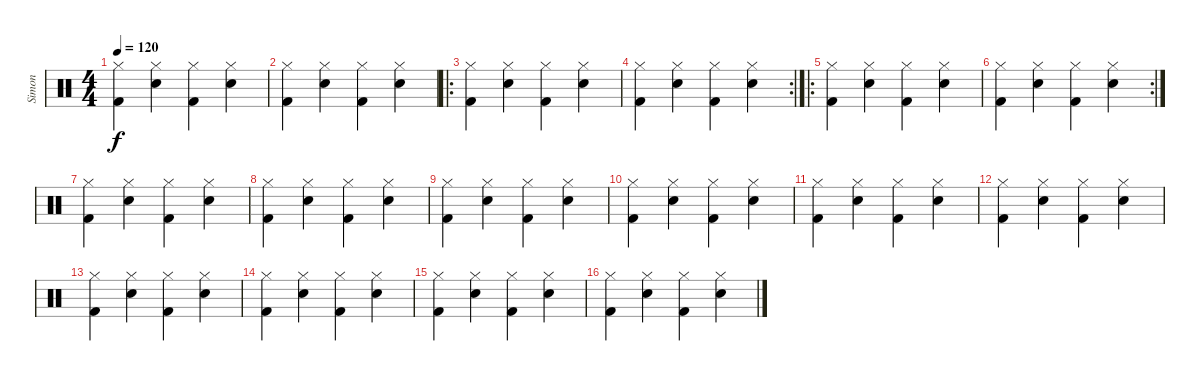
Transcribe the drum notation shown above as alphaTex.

\track ("Simon" "Simon") {instrument percussion}
\staff {score}
\articulation defaults
\ts (4 4)
\tempo 120
\clef neutral
\ks c
("Hi-Hat (closed)" "Kick (hit) 2").4{dy f} ("Hi-Hat (closed)" "Electric Snare (hit)").4 ("Hi-Hat (closed)" "Kick (hit) 2").4 ("Hi-Hat (closed)" "Electric Snare (hit)").4 |
("Hi-Hat (closed)" "Kick (hit) 2").4 ("Hi-Hat (closed)" "Electric Snare (hit)").4 ("Hi-Hat (closed)" "Kick (hit) 2").4 ("Hi-Hat (closed)" "Electric Snare (hit)").4 |
\ro
("Hi-Hat (closed)" "Kick (hit) 2").4 ("Hi-Hat (closed)" "Electric Snare (hit)").4 ("Hi-Hat (closed)" "Kick (hit) 2").4 ("Hi-Hat (closed)" "Electric Snare (hit)").4 |
\rc 2
("Hi-Hat (closed)" "Kick (hit) 2").4 ("Hi-Hat (closed)" "Electric Snare (hit)").4 ("Hi-Hat (closed)" "Kick (hit) 2").4 ("Hi-Hat (closed)" "Electric Snare (hit)").4 |
\ro
("Hi-Hat (closed)" "Kick (hit) 2").4 ("Hi-Hat (closed)" "Electric Snare (hit)").4 ("Hi-Hat (closed)" "Kick (hit) 2").4 ("Hi-Hat (closed)" "Electric Snare (hit)").4 |
\rc 2
("Hi-Hat (closed)" "Kick (hit) 2").4 ("Hi-Hat (closed)" "Electric Snare (hit)").4 ("Hi-Hat (closed)" "Kick (hit) 2").4 ("Hi-Hat (closed)" "Electric Snare (hit)").4 |
("Hi-Hat (closed)" "Kick (hit) 2").4 ("Hi-Hat (closed)" "Electric Snare (hit)").4 ("Hi-Hat (closed)" "Kick (hit) 2").4 ("Hi-Hat (closed)" "Electric Snare (hit)").4 |
("Hi-Hat (closed)" "Kick (hit) 2").4 ("Hi-Hat (closed)" "Electric Snare (hit)").4 ("Hi-Hat (closed)" "Kick (hit) 2").4 ("Hi-Hat (closed)" "Electric Snare (hit)").4 |
("Hi-Hat (closed)" "Kick (hit) 2").4 ("Hi-Hat (closed)" "Electric Snare (hit)").4 ("Hi-Hat (closed)" "Kick (hit) 2").4 ("Hi-Hat (closed)" "Electric Snare (hit)").4 |
("Hi-Hat (closed)" "Kick (hit) 2").4 ("Hi-Hat (closed)" "Electric Snare (hit)").4 ("Hi-Hat (closed)" "Kick (hit) 2").4 ("Hi-Hat (closed)" "Electric Snare (hit)").4 |
("Hi-Hat (closed)" "Kick (hit) 2").4 ("Hi-Hat (closed)" "Electric Snare (hit)").4 ("Hi-Hat (closed)" "Kick (hit) 2").4 ("Hi-Hat (closed)" "Electric Snare (hit)").4 |
("Hi-Hat (closed)" "Kick (hit) 2").4 ("Hi-Hat (closed)" "Electric Snare (hit)").4 ("Hi-Hat (closed)" "Kick (hit) 2").4 ("Hi-Hat (closed)" "Electric Snare (hit)").4 |
("Hi-Hat (closed)" "Kick (hit) 2").4 ("Hi-Hat (closed)" "Electric Snare (hit)").4 ("Hi-Hat (closed)" "Kick (hit) 2").4 ("Hi-Hat (closed)" "Electric Snare (hit)").4 |
("Hi-Hat (closed)" "Kick (hit) 2").4 ("Hi-Hat (closed)" "Electric Snare (hit)").4 ("Hi-Hat (closed)" "Kick (hit) 2").4 ("Hi-Hat (closed)" "Electric Snare (hit)").4 |
("Hi-Hat (closed)" "Kick (hit) 2").4 ("Hi-Hat (closed)" "Electric Snare (hit)").4 ("Hi-Hat (closed)" "Kick (hit) 2").4 ("Hi-Hat (closed)" "Electric Snare (hit)").4 |
("Hi-Hat (closed)" "Kick (hit) 2").4 ("Hi-Hat (closed)" "Electric Snare (hit)").4 ("Hi-Hat (closed)" "Kick (hit) 2").4 ("Hi-Hat (closed)" "Electric Snare (hit)").4
